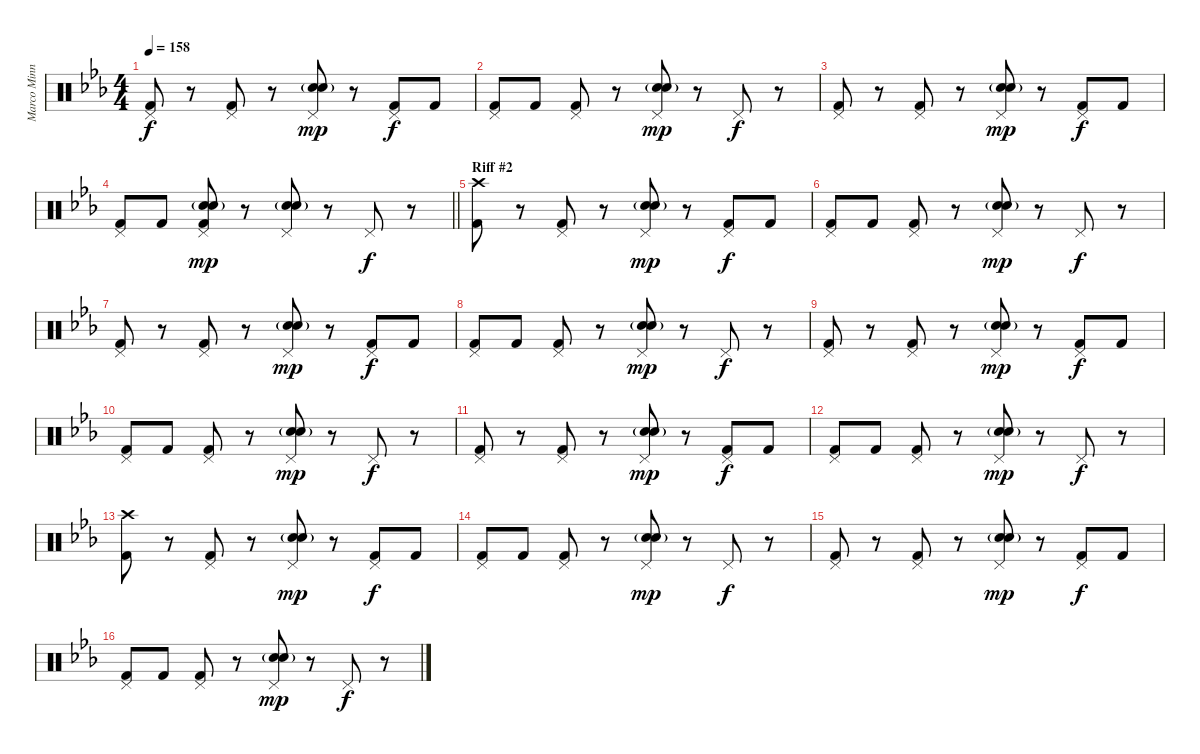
\track ("Marco Minnemann (Drums)" "Marco Minn") {instrument percussion}
\staff {score}
\articulation defaults
\ts (4 4)
\tempo 158
\clef neutral
\ks eb
("Pedal Hi-Hat (hit)" "Kick (hit) 2").8{dy f} r.8 ("Pedal Hi-Hat (hit)" "Kick (hit) 2").8 r.8 ("Pedal Hi-Hat (hit)" "Snare (hit) 2"{g} "Electric Snare (hit)").8{dy mp} r.8 ("Pedal Hi-Hat (hit)" "Kick (hit) 2").8{dy f} "Kick (hit) 2".8 |
("Pedal Hi-Hat (hit)" "Kick (hit) 2").8 "Kick (hit) 2".8 ("Pedal Hi-Hat (hit)" "Kick (hit) 2").8 r.8 ("Pedal Hi-Hat (hit)" "Snare (hit) 2"{g} "Electric Snare (hit)").8{dy mp} r.8 "Pedal Hi-Hat (hit)".8{dy f} r.8 |
("Pedal Hi-Hat (hit)" "Kick (hit) 2").8 r.8 ("Pedal Hi-Hat (hit)" "Kick (hit) 2").8 r.8 ("Pedal Hi-Hat (hit)" "Snare (hit) 2"{g} "Electric Snare (hit)").8{dy mp} r.8 ("Pedal Hi-Hat (hit)" "Kick (hit) 2").8{dy f} "Kick (hit) 2".8 |
\barLineRight lightlight
("Pedal Hi-Hat (hit)" "Kick (hit) 2").8 "Kick (hit) 2".8 ("Pedal Hi-Hat (hit)" "Snare (hit) 2"{g} "Electric Snare (hit)" "Kick (hit) 2").8{dy mp} r.8 ("Pedal Hi-Hat (hit)" "Snare (hit) 2"{g} "Electric Snare (hit)").8 r.8 "Pedal Hi-Hat (hit)".8{dy f} r.8 |
\section ("" "Riff #2")
("Crash high (hit)" "Kick (hit) 2").8 r.8 ("Pedal Hi-Hat (hit)" "Kick (hit) 2").8 r.8 ("Pedal Hi-Hat (hit)" "Snare (hit) 2"{g} "Electric Snare (hit)").8{dy mp} r.8 ("Pedal Hi-Hat (hit)" "Kick (hit) 2").8{dy f} "Kick (hit) 2".8 |
("Pedal Hi-Hat (hit)" "Kick (hit) 2").8 "Kick (hit) 2".8 ("Pedal Hi-Hat (hit)" "Kick (hit) 2").8 r.8 ("Pedal Hi-Hat (hit)" "Snare (hit) 2"{g} "Electric Snare (hit)").8{dy mp} r.8 "Pedal Hi-Hat (hit)".8{dy f} r.8 |
("Pedal Hi-Hat (hit)" "Kick (hit) 2").8 r.8 ("Pedal Hi-Hat (hit)" "Kick (hit) 2").8 r.8 ("Pedal Hi-Hat (hit)" "Snare (hit) 2"{g} "Electric Snare (hit)").8{dy mp} r.8 ("Pedal Hi-Hat (hit)" "Kick (hit) 2").8{dy f} "Kick (hit) 2".8 |
("Pedal Hi-Hat (hit)" "Kick (hit) 2").8 "Kick (hit) 2".8 ("Pedal Hi-Hat (hit)" "Kick (hit) 2").8 r.8 ("Pedal Hi-Hat (hit)" "Snare (hit) 2"{g} "Electric Snare (hit)").8{dy mp} r.8 "Pedal Hi-Hat (hit)".8{dy f} r.8 |
("Pedal Hi-Hat (hit)" "Kick (hit) 2").8 r.8 ("Pedal Hi-Hat (hit)" "Kick (hit) 2").8 r.8 ("Pedal Hi-Hat (hit)" "Snare (hit) 2"{g} "Electric Snare (hit)").8{dy mp} r.8 ("Pedal Hi-Hat (hit)" "Kick (hit) 2").8{dy f} "Kick (hit) 2".8 |
("Pedal Hi-Hat (hit)" "Kick (hit) 2").8 "Kick (hit) 2".8 ("Pedal Hi-Hat (hit)" "Kick (hit) 2").8 r.8 ("Pedal Hi-Hat (hit)" "Snare (hit) 2"{g} "Electric Snare (hit)").8{dy mp} r.8 "Pedal Hi-Hat (hit)".8{dy f} r.8 |
("Pedal Hi-Hat (hit)" "Kick (hit) 2").8 r.8 ("Pedal Hi-Hat (hit)" "Kick (hit) 2").8 r.8 ("Pedal Hi-Hat (hit)" "Snare (hit) 2"{g} "Electric Snare (hit)").8{dy mp} r.8 ("Pedal Hi-Hat (hit)" "Kick (hit) 2").8{dy f} "Kick (hit) 2".8 |
("Pedal Hi-Hat (hit)" "Kick (hit) 2").8 "Kick (hit) 2".8 ("Pedal Hi-Hat (hit)" "Kick (hit) 2").8 r.8 ("Pedal Hi-Hat (hit)" "Snare (hit) 2"{g} "Electric Snare (hit)").8{dy mp} r.8 "Pedal Hi-Hat (hit)".8{dy f} r.8 |
("Crash high (hit)" "Kick (hit) 2").8 r.8 ("Pedal Hi-Hat (hit)" "Kick (hit) 2").8 r.8 ("Pedal Hi-Hat (hit)" "Snare (hit) 2"{g} "Electric Snare (hit)").8{dy mp} r.8 ("Pedal Hi-Hat (hit)" "Kick (hit) 2").8{dy f} "Kick (hit) 2".8 |
("Pedal Hi-Hat (hit)" "Kick (hit) 2").8 "Kick (hit) 2".8 ("Pedal Hi-Hat (hit)" "Kick (hit) 2").8 r.8 ("Pedal Hi-Hat (hit)" "Snare (hit) 2"{g} "Electric Snare (hit)").8{dy mp} r.8 "Pedal Hi-Hat (hit)".8{dy f} r.8 |
("Pedal Hi-Hat (hit)" "Kick (hit) 2").8 r.8 ("Pedal Hi-Hat (hit)" "Kick (hit) 2").8 r.8 ("Pedal Hi-Hat (hit)" "Snare (hit) 2"{g} "Electric Snare (hit)").8{dy mp} r.8 ("Pedal Hi-Hat (hit)" "Kick (hit) 2").8{dy f} "Kick (hit) 2".8 |
("Pedal Hi-Hat (hit)" "Kick (hit) 2").8 "Kick (hit) 2".8 ("Pedal Hi-Hat (hit)" "Kick (hit) 2").8 r.8 ("Pedal Hi-Hat (hit)" "Snare (hit) 2"{g} "Electric Snare (hit)").8{dy mp} r.8 "Pedal Hi-Hat (hit)".8{dy f} r.8
